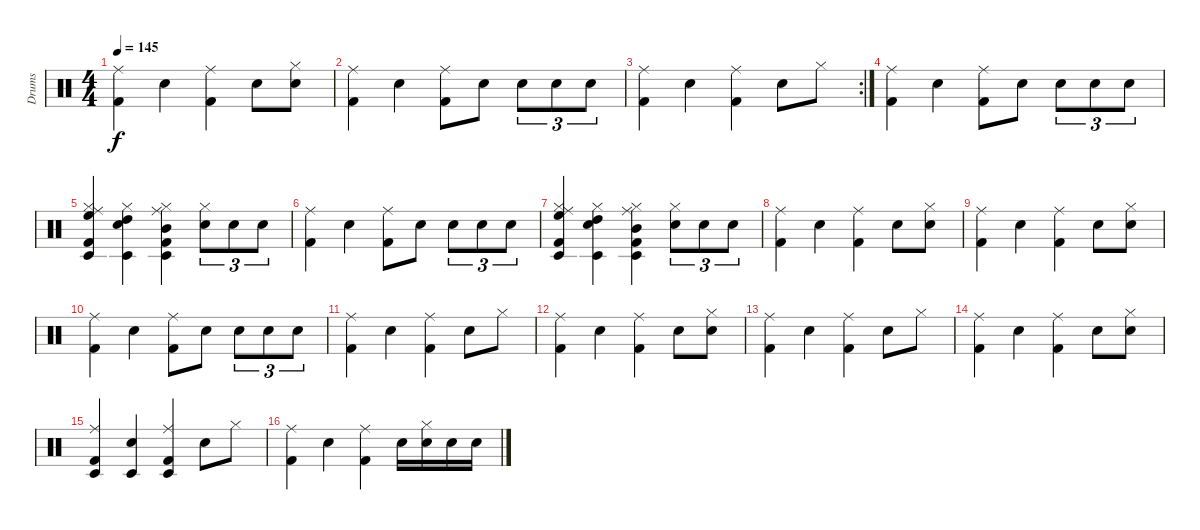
\track ("Drums" "Drums") {instrument percussion}
\staff {score}
\articulation defaults
\ts (4 4)
\tempo 145
\clef neutral
\ks c
("Ride (middle)" "Kick (hit) 2").4{dy f} "Electric Snare (hit)".4 ("Ride (middle)" "Kick (hit) 2").4 "Electric Snare (hit)".8 ("Hi-Hat (closed)" "Electric Snare (hit)").8 |
("Ride (middle)" "Kick (hit) 2").4 "Electric Snare (hit)".4 ("Ride (middle)" "Kick (hit) 2").8 "Electric Snare (hit)".8 "Electric Snare (hit)".8{tu (3 2)} "Electric Snare (hit)".8{tu (3 2)} "Electric Snare (hit)".8{tu (3 2)} |
\rc 2
("Ride (middle)" "Kick (hit) 2").4 "Electric Snare (hit)".4 ("Ride (middle)" "Kick (hit) 2").4 "Electric Snare (hit)".8 "Hi-Hat (closed)".8 |
("Ride (middle)" "Kick (hit) 2").4 "Electric Snare (hit)".4 ("Ride (middle)" "Kick (hit) 2").8 "Electric Snare (hit)".8 "Electric Snare (hit)".8{tu (3 2)} "Electric Snare (hit)".8{tu (3 2)} "Electric Snare (hit)".8{tu (3 2)} |
("High Floor Tom (hit)" "Ride (middle)" "Timbale low (hit)" "Kick (hit) 2" "Hi-Hat (closed)").4 ("High Tom (hit)" "Electric Snare (hit)" "Hi-Hat (closed)" "Timbale low (hit)").4 ("Mid Tom (hit)" "Ride (middle)" "Hi-Hat (closed)" "Kick (hit) 2" "Timbale low (hit)").4 ("Hi-Hat (closed)" "Electric Snare (hit)").8{tu (3 2)} "Electric Snare (hit)".8{tu (3 2)} "Electric Snare (hit)".8{tu (3 2)} |
("Ride (middle)" "Kick (hit) 2").4 "Electric Snare (hit)".4 ("Ride (middle)" "Kick (hit) 2").8 "Electric Snare (hit)".8 "Electric Snare (hit)".8{tu (3 2)} "Electric Snare (hit)".8{tu (3 2)} "Electric Snare (hit)".8{tu (3 2)} |
("High Floor Tom (hit)" "Ride (middle)" "Timbale low (hit)" "Kick (hit) 2" "Hi-Hat (closed)").4 ("High Tom (hit)" "Electric Snare (hit)" "Hi-Hat (closed)" "Timbale low (hit)").4 ("Mid Tom (hit)" "Ride (middle)" "Hi-Hat (closed)" "Kick (hit) 2" "Timbale low (hit)").4 ("Hi-Hat (closed)" "Electric Snare (hit)").8{tu (3 2)} "Electric Snare (hit)".8{tu (3 2)} "Electric Snare (hit)".8{tu (3 2)} |
("Ride (middle)" "Kick (hit) 2").4 "Electric Snare (hit)".4 ("Ride (middle)" "Kick (hit) 2").4 "Electric Snare (hit)".8 ("Hi-Hat (closed)" "Electric Snare (hit)").8 |
("Ride (middle)" "Kick (hit) 2").4 "Electric Snare (hit)".4 ("Ride (middle)" "Kick (hit) 2").4 "Electric Snare (hit)".8 ("Hi-Hat (closed)" "Electric Snare (hit)").8 |
("Ride (middle)" "Kick (hit) 2").4 "Electric Snare (hit)".4 ("Ride (middle)" "Kick (hit) 2").8 "Electric Snare (hit)".8 "Electric Snare (hit)".8{tu (3 2)} "Electric Snare (hit)".8{tu (3 2)} "Electric Snare (hit)".8{tu (3 2)} |
("Ride (middle)" "Kick (hit) 2").4 "Electric Snare (hit)".4 ("Ride (middle)" "Kick (hit) 2").4 "Electric Snare (hit)".8 "Hi-Hat (closed)".8 |
("Ride (middle)" "Kick (hit) 2").4 "Electric Snare (hit)".4 ("Ride (middle)" "Kick (hit) 2").4 "Electric Snare (hit)".8 ("Hi-Hat (closed)" "Electric Snare (hit)").8 |
("Ride (middle)" "Kick (hit) 2").4 "Electric Snare (hit)".4 ("Ride (middle)" "Kick (hit) 2").4 "Electric Snare (hit)".8 "Hi-Hat (closed)".8 |
("Ride (middle)" "Kick (hit) 2").4 "Electric Snare (hit)".4 ("Ride (middle)" "Kick (hit) 2").4 "Electric Snare (hit)".8 ("Hi-Hat (closed)" "Electric Snare (hit)").8 |
("Ride (middle)" "Timbale low (hit)" "Kick (hit) 2").4 ("Electric Snare (hit)" "Timbale low (hit)").4 ("Ride (middle)" "Timbale low (hit)" "Kick (hit) 2").4 "Electric Snare (hit)".8 "Hi-Hat (closed)".8 |
("Ride (middle)" "Kick (hit) 2").4 "Electric Snare (hit)".4 ("Ride (middle)" "Kick (hit) 2").4 "Electric Snare (hit)".16 ("Hi-Hat (closed)" "Electric Snare (hit)").16 "Electric Snare (hit)".16 "Electric Snare (hit)".16
